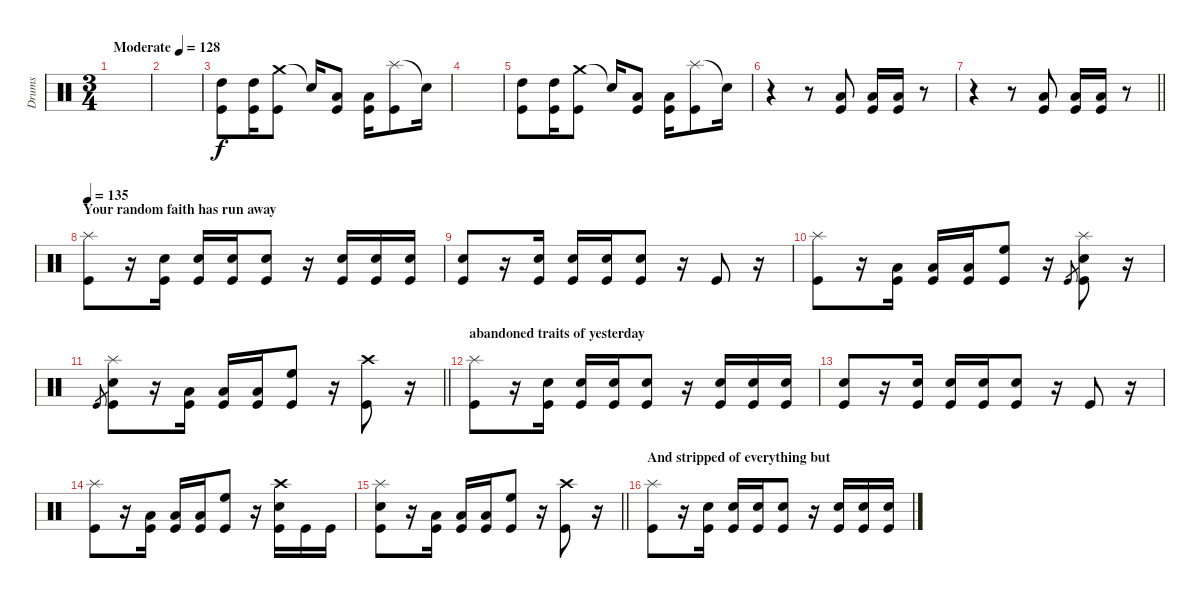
\track ("Drums" "Drums") {instrument percussion}
\staff {score}
\articulation defaults
\ts (3 4)
\tempo (128 "Moderate")
\clef neutral
\ks c
|
|
("High Tom (hit)" "Kick (hit)").8 ("High Tom (hit)" "Kick (hit)").16 ("Crash medium (hit)" "Kick (hit)").8 "Snare (hit)"{t}.16 ("Low Tom (hit)" "Kick (hit)").8 ("Low Tom (hit)" "Kick (hit)").16 ("Splash (hit)" "Kick (hit)").8 "Snare (hit)"{t}.16 |
|
("High Tom (hit)" "Kick (hit)").8 ("High Tom (hit)" "Kick (hit)").16 ("Crash medium (hit)" "Kick (hit)").8 "Snare (hit)"{t}.16 ("Low Tom (hit)" "Kick (hit)").8 ("Low Tom (hit)" "Kick (hit)").16 ("Splash (hit)" "Kick (hit)").8 "Snare (hit)"{t}.16 |
r.4 r.8 ("Low Tom (hit)" "Kick (hit)").8 ("Low Tom (hit)" "Kick (hit)").16 ("Low Tom (hit)" "Kick (hit)").16 r.8 |
\barLineRight lightlight
r.4 r.8 ("Low Tom (hit)" "Kick (hit)").8 ("Low Tom (hit)" "Kick (hit)").16 ("Low Tom (hit)" "Kick (hit)").16 r.8 |
\section ("" "Your random faith has run away")
\tempo 135
("Splash (hit)" "Kick (hit)").8 r.16 ("Snare (hit) 2" "Kick (hit)").16 ("Snare (hit) 2" "Kick (hit)").16 ("Snare (hit) 2" "Kick (hit)").16 ("Snare (hit) 2" "Kick (hit)").8 r.16 ("Snare (hit) 2" "Kick (hit)").16 ("Snare (hit) 2" "Kick (hit)").16 ("Snare (hit) 2" "Kick (hit)").16 |
("Snare (hit) 2" "Kick (hit)").8 r.16 ("Snare (hit) 2" "Kick (hit)").16 ("Snare (hit) 2" "Kick (hit)").16 ("Snare (hit) 2" "Kick (hit)").16 ("Snare (hit) 2" "Kick (hit)").8 r.16 "Kick (hit)".8 r.16 |
("Splash (hit)" "Kick (hit)").8 r.16 ("Low Tom (hit)" "Kick (hit)").16 ("Low Tom (hit)" "Kick (hit)").16 ("Low Tom (hit)" "Kick (hit)").16 ("High Floor Tom (hit)" "Kick (hit)").8 r.16 "Kick (hit)".8{gr} ("Splash (hit)" "Snare (hit) 2" "Kick (hit)").8 r.16 |
\barLineRight lightlight "Kick (hit)".8{gr}
("Splash (hit)" "Snare (hit) 2" "Kick (hit)").8 r.16 ("Low Tom (hit)" "Kick (hit)").16 ("Low Tom (hit)" "Kick (hit)").16 ("Low Tom (hit)" "Kick (hit)").16 ("High Floor Tom (hit)" "Kick (hit)").8 r.16 ("Crash high (hit)" "Kick (hit)").8 r.16 |
\section ("" "abandoned traits of yesterday")
("Splash (hit)" "Kick (hit)").8 r.16 ("Snare (hit) 2" "Kick (hit)").16 ("Snare (hit) 2" "Kick (hit)").16 ("Snare (hit) 2" "Kick (hit)").16 ("Snare (hit) 2" "Kick (hit)").8 r.16 ("Snare (hit) 2" "Kick (hit)").16 ("Snare (hit) 2" "Kick (hit)").16 ("Snare (hit) 2" "Kick (hit)").16 |
("Snare (hit) 2" "Kick (hit)").8 r.16 ("Snare (hit) 2" "Kick (hit)").16 ("Snare (hit) 2" "Kick (hit)").16 ("Snare (hit) 2" "Kick (hit)").16 ("Snare (hit) 2" "Kick (hit)").8 r.16 "Kick (hit)".8 r.16 |
("Splash (hit)" "Kick (hit)").8 r.16 ("Low Tom (hit)" "Kick (hit)").16 ("Low Tom (hit)" "Kick (hit)").16 ("Low Tom (hit)" "Kick (hit)").16 ("High Floor Tom (hit)" "Kick (hit)").8 r.16 ("Crash high (hit)" "Snare (hit) 2" "Kick (hit)").16 "Kick (hit)".16 "Kick (hit)".16 |
\barLineRight lightlight
("Splash (hit)" "Snare (hit) 2" "Kick (hit)").8 r.16 ("Low Tom (hit)" "Kick (hit)").16 ("Low Tom (hit)" "Kick (hit)").16 ("Low Tom (hit)" "Kick (hit)").16 ("High Floor Tom (hit)" "Kick (hit)").8 r.16 ("Crash high (hit)" "Kick (hit)").8 r.16 |
\section ("" "And stripped of everything but ")
("Splash (hit)" "Kick (hit)").8 r.16 ("Snare (hit) 2" "Kick (hit)").16 ("Snare (hit) 2" "Kick (hit)").16 ("Snare (hit) 2" "Kick (hit)").16 ("Snare (hit) 2" "Kick (hit)").8 r.16 ("Snare (hit) 2" "Kick (hit)").16 ("Snare (hit) 2" "Kick (hit)").16 ("Snare (hit) 2" "Kick (hit)").16
